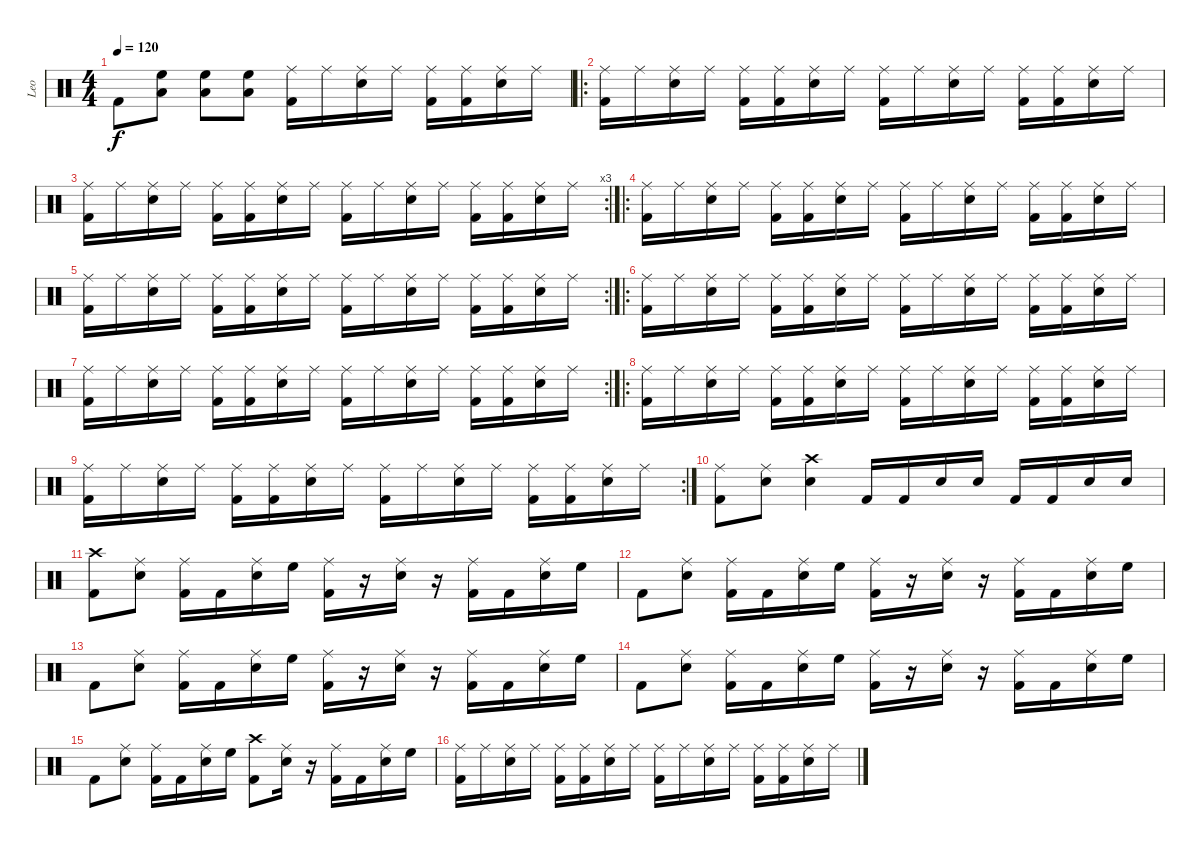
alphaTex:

\track ("Leo" "Leo") {instrument percussion}
\staff {score}
\articulation defaults
\ts (4 4)
\tempo 120
\clef neutral
\ks c "Kick (hit) 2".8{dy f}
("Low Tom (hit)" "High Floor Tom (hit)").8 ("Low Tom (hit)" "High Floor Tom (hit)").8 ("Low Tom (hit)" "High Floor Tom (hit)").8 ("Ride (middle)" "Kick (hit) 2").16 "Ride (middle)".16 ("Ride (middle)" "Snare (hit) 2").16 "Ride (middle)".16 ("Ride (middle)" "Kick (hit) 2").16 ("Ride (middle)" "Kick (hit) 2").16 ("Ride (middle)" "Snare (hit) 2").16 "Ride (middle)".16 |
\ro
("Ride (middle)" "Kick (hit) 2").16 "Ride (middle)".16 ("Ride (middle)" "Snare (hit) 2").16 "Ride (middle)".16 ("Ride (middle)" "Kick (hit) 2").16 ("Ride (middle)" "Kick (hit) 2").16 ("Ride (middle)" "Snare (hit) 2").16 "Ride (middle)".16 ("Ride (middle)" "Kick (hit) 2").16 "Ride (middle)".16 ("Ride (middle)" "Snare (hit) 2").16 "Ride (middle)".16 ("Ride (middle)" "Kick (hit) 2").16 ("Ride (middle)" "Kick (hit) 2").16 ("Ride (middle)" "Snare (hit) 2").16 "Ride (middle)".16 |
\rc 3
("Ride (middle)" "Kick (hit) 2").16 "Ride (middle)".16 ("Ride (middle)" "Snare (hit) 2").16 "Ride (middle)".16 ("Ride (middle)" "Kick (hit) 2").16 ("Ride (middle)" "Kick (hit) 2").16 ("Ride (middle)" "Snare (hit) 2").16 "Ride (middle)".16 ("Ride (middle)" "Kick (hit) 2").16 "Ride (middle)".16 ("Ride (middle)" "Snare (hit) 2").16 "Ride (middle)".16 ("Ride (middle)" "Kick (hit) 2").16 ("Ride (middle)" "Kick (hit) 2").16 ("Ride (middle)" "Snare (hit) 2").16 "Ride (middle)".16 |
\ro
("Ride (middle)" "Kick (hit) 2").16 "Ride (middle)".16 ("Ride (middle)" "Snare (hit) 2").16 "Ride (middle)".16 ("Ride (middle)" "Kick (hit) 2").16 ("Ride (middle)" "Kick (hit) 2").16 ("Ride (middle)" "Snare (hit) 2").16 "Ride (middle)".16 ("Ride (middle)" "Kick (hit) 2").16 "Ride (middle)".16 ("Ride (middle)" "Snare (hit) 2").16 "Ride (middle)".16 ("Ride (middle)" "Kick (hit) 2").16 ("Ride (middle)" "Kick (hit) 2").16 ("Ride (middle)" "Snare (hit) 2").16 "Ride (middle)".16 |
\rc 2
("Ride (middle)" "Kick (hit) 2").16 "Ride (middle)".16 ("Ride (middle)" "Snare (hit) 2").16 "Ride (middle)".16 ("Ride (middle)" "Kick (hit) 2").16 ("Ride (middle)" "Kick (hit) 2").16 ("Ride (middle)" "Snare (hit) 2").16 "Ride (middle)".16 ("Ride (middle)" "Kick (hit) 2").16 "Ride (middle)".16 ("Ride (middle)" "Snare (hit) 2").16 "Ride (middle)".16 ("Ride (middle)" "Kick (hit) 2").16 ("Ride (middle)" "Kick (hit) 2").16 ("Ride (middle)" "Snare (hit) 2").16 "Ride (middle)".16 |
\ro
("Ride (middle)" "Kick (hit) 2").16 "Ride (middle)".16 ("Ride (middle)" "Snare (hit) 2").16 "Ride (middle)".16 ("Ride (middle)" "Kick (hit) 2").16 ("Ride (middle)" "Kick (hit) 2").16 ("Ride (middle)" "Snare (hit) 2").16 "Ride (middle)".16 ("Ride (middle)" "Kick (hit) 2").16 "Ride (middle)".16 ("Ride (middle)" "Snare (hit) 2").16 "Ride (middle)".16 ("Ride (middle)" "Kick (hit) 2").16 ("Ride (middle)" "Kick (hit) 2").16 ("Ride (middle)" "Snare (hit) 2").16 "Ride (middle)".16 |
\rc 2
("Ride (middle)" "Kick (hit) 2").16 "Ride (middle)".16 ("Ride (middle)" "Snare (hit) 2").16 "Ride (middle)".16 ("Ride (middle)" "Kick (hit) 2").16 ("Ride (middle)" "Kick (hit) 2").16 ("Ride (middle)" "Snare (hit) 2").16 "Ride (middle)".16 ("Ride (middle)" "Kick (hit) 2").16 "Ride (middle)".16 ("Ride (middle)" "Snare (hit) 2").16 "Ride (middle)".16 ("Ride (middle)" "Kick (hit) 2").16 ("Ride (middle)" "Kick (hit) 2").16 ("Ride (middle)" "Snare (hit) 2").16 "Ride (middle)".16 |
\ro
("Ride (middle)" "Kick (hit) 2").16 "Ride (middle)".16 ("Ride (middle)" "Snare (hit) 2").16 "Ride (middle)".16 ("Ride (middle)" "Kick (hit) 2").16 ("Ride (middle)" "Kick (hit) 2").16 ("Ride (middle)" "Snare (hit) 2").16 "Ride (middle)".16 ("Ride (middle)" "Kick (hit) 2").16 "Ride (middle)".16 ("Ride (middle)" "Snare (hit) 2").16 "Ride (middle)".16 ("Ride (middle)" "Kick (hit) 2").16 ("Ride (middle)" "Kick (hit) 2").16 ("Ride (middle)" "Snare (hit) 2").16 "Ride (middle)".16 |
\rc 2
("Ride (middle)" "Kick (hit) 2").16 "Ride (middle)".16 ("Ride (middle)" "Snare (hit) 2").16 "Ride (middle)".16 ("Ride (middle)" "Kick (hit) 2").16 ("Ride (middle)" "Kick (hit) 2").16 ("Ride (middle)" "Snare (hit) 2").16 "Ride (middle)".16 ("Ride (middle)" "Kick (hit) 2").16 "Ride (middle)".16 ("Ride (middle)" "Snare (hit) 2").16 "Ride (middle)".16 ("Ride (middle)" "Kick (hit) 2").16 ("Ride (middle)" "Kick (hit) 2").16 ("Ride (middle)" "Snare (hit) 2").16 "Ride (middle)".16 |
("Ride (middle)" "Kick (hit) 2").8 ("Ride (middle)" "Snare (hit) 2").8 ("Crash high (hit)" "Snare (hit) 2").4 "Kick (hit) 2".16 "Kick (hit) 2".16 "Snare (hit) 2".16 "Snare (hit) 2".16 "Kick (hit) 2".16 "Kick (hit) 2".16 "Snare (hit) 2".16 "Snare (hit) 2".16 |
("Crash high (hit)" "Kick (hit) 2").8 ("Ride (middle)" "Snare (hit) 2").8 ("Ride (middle)" "Kick (hit) 2").16 "Kick (hit) 2".16 ("Ride (middle)" "Snare (hit) 2").16 "High Floor Tom (hit)".16 ("Ride (middle)" "Kick (hit) 2").16 r.16 ("Ride (middle)" "Snare (hit) 2").16 r.16 ("Ride (middle)" "Kick (hit) 2").16 "Kick (hit) 2".16 ("Ride (middle)" "Snare (hit) 2").16 "High Floor Tom (hit)".16 |
"Kick (hit) 2".8 ("Ride (middle)" "Snare (hit) 2").8 ("Ride (middle)" "Kick (hit) 2").16 "Kick (hit) 2".16 ("Ride (middle)" "Snare (hit) 2").16 "High Floor Tom (hit)".16 ("Ride (middle)" "Kick (hit) 2").16 r.16 ("Ride (middle)" "Snare (hit) 2").16 r.16 ("Ride (middle)" "Kick (hit) 2").16 "Kick (hit) 2".16 ("Ride (middle)" "Snare (hit) 2").16 "High Floor Tom (hit)".16 |
"Kick (hit) 2".8 ("Ride (middle)" "Snare (hit) 2").8 ("Ride (middle)" "Kick (hit) 2").16 "Kick (hit) 2".16 ("Ride (middle)" "Snare (hit) 2").16 "High Floor Tom (hit)".16 ("Ride (middle)" "Kick (hit) 2").16 r.16 ("Ride (middle)" "Snare (hit) 2").16 r.16 ("Ride (middle)" "Kick (hit) 2").16 "Kick (hit) 2".16 ("Ride (middle)" "Snare (hit) 2").16 "High Floor Tom (hit)".16 |
"Kick (hit) 2".8 ("Ride (middle)" "Snare (hit) 2").8 ("Ride (middle)" "Kick (hit) 2").16 "Kick (hit) 2".16 ("Ride (middle)" "Snare (hit) 2").16 "High Floor Tom (hit)".16 ("Ride (middle)" "Kick (hit) 2").16 r.16 ("Ride (middle)" "Snare (hit) 2").16 r.16 ("Ride (middle)" "Kick (hit) 2").16 "Kick (hit) 2".16 ("Ride (middle)" "Snare (hit) 2").16 "High Floor Tom (hit)".16 |
"Kick (hit) 2".8 ("Ride (middle)" "Snare (hit) 2").8 ("Ride (middle)" "Kick (hit) 2").16 "Kick (hit) 2".16 ("Ride (middle)" "Snare (hit) 2").16 "High Floor Tom (hit)".16 ("Crash high (hit)" "Kick (hit) 2").8 ("Ride (middle)" "Snare (hit) 2").16 r.16 ("Ride (middle)" "Kick (hit) 2").16 "Kick (hit) 2".16 ("Ride (middle)" "Snare (hit) 2").16 "High Floor Tom (hit)".16 |
("Ride (middle)" "Kick (hit) 2").16 "Ride (middle)".16 ("Ride (middle)" "Snare (hit) 2").16 "Ride (middle)".16 ("Ride (middle)" "Kick (hit) 2").16 ("Ride (middle)" "Kick (hit) 2").16 ("Ride (middle)" "Snare (hit) 2").16 "Ride (middle)".16 ("Ride (middle)" "Kick (hit) 2").16 "Ride (middle)".16 ("Ride (middle)" "Snare (hit) 2").16 "Ride (middle)".16 ("Ride (middle)" "Kick (hit) 2").16 ("Ride (middle)" "Kick (hit) 2").16 ("Ride (middle)" "Snare (hit) 2").16 "Ride (middle)".16
